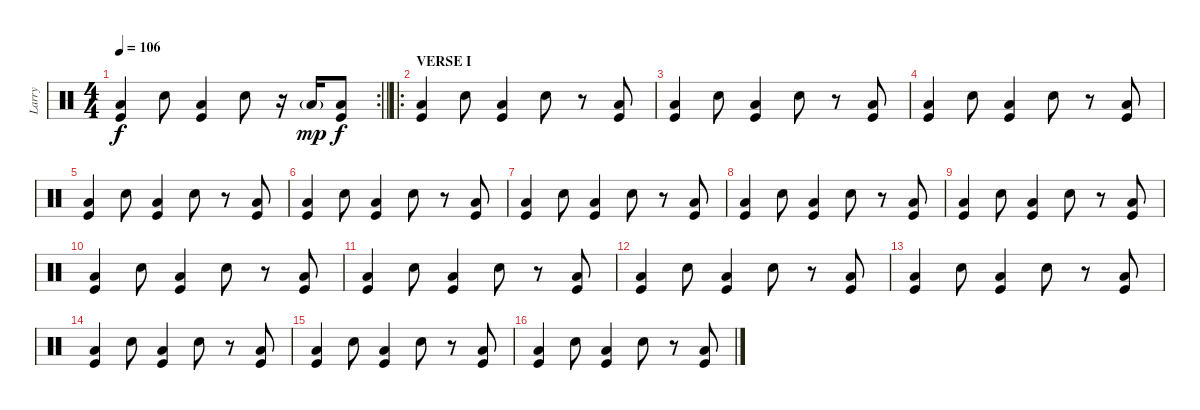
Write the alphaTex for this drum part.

\track ("Larry" "Larry") {instrument percussion}
\staff {score}
\articulation defaults
\rc 2
\ts (4 4)
\tempo 106
\clef neutral
\barLineRight lightlight
\ks c
("Low Tom (hit)" "Kick (hit)").4{dy f} "Snare (hit) 2".8 ("Low Tom (hit)" "Kick (hit)").4 "Snare (hit) 2".8 r.16 "Low Tom (hit)"{g}.16{dy mp} ("Low Tom (hit)" "Kick (hit)").8{dy f} |
\ro
\section ("" "VERSE I")
("Low Tom (hit)" "Kick (hit)").4 "Snare (hit) 2".8 ("Low Tom (hit)" "Kick (hit)").4 "Snare (hit) 2".8 r.8 ("Low Tom (hit)" "Kick (hit)").8 |
("Low Tom (hit)" "Kick (hit)").4 "Snare (hit) 2".8 ("Low Tom (hit)" "Kick (hit)").4 "Snare (hit) 2".8 r.8 ("Low Tom (hit)" "Kick (hit)").8 |
("Low Tom (hit)" "Kick (hit)").4 "Snare (hit) 2".8 ("Low Tom (hit)" "Kick (hit)").4 "Snare (hit) 2".8 r.8 ("Low Tom (hit)" "Kick (hit)").8 |
("Low Tom (hit)" "Kick (hit)").4 "Snare (hit) 2".8 ("Low Tom (hit)" "Kick (hit)").4 "Snare (hit) 2".8 r.8 ("Low Tom (hit)" "Kick (hit)").8 |
("Low Tom (hit)" "Kick (hit)").4 "Snare (hit) 2".8 ("Low Tom (hit)" "Kick (hit)").4 "Snare (hit) 2".8 r.8 ("Low Tom (hit)" "Kick (hit)").8 |
("Low Tom (hit)" "Kick (hit)").4 "Snare (hit) 2".8 ("Low Tom (hit)" "Kick (hit)").4 "Snare (hit) 2".8 r.8 ("Low Tom (hit)" "Kick (hit)").8 |
("Low Tom (hit)" "Kick (hit)").4 "Snare (hit) 2".8 ("Low Tom (hit)" "Kick (hit)").4 "Snare (hit) 2".8 r.8 ("Low Tom (hit)" "Kick (hit)").8 |
("Low Tom (hit)" "Kick (hit)").4 "Snare (hit) 2".8 ("Low Tom (hit)" "Kick (hit)").4 "Snare (hit) 2".8 r.8 ("Low Tom (hit)" "Kick (hit)").8 |
("Low Tom (hit)" "Kick (hit)").4 "Snare (hit) 2".8 ("Low Tom (hit)" "Kick (hit)").4 "Snare (hit) 2".8 r.8 ("Low Tom (hit)" "Kick (hit)").8 |
("Low Tom (hit)" "Kick (hit)").4 "Snare (hit) 2".8 ("Low Tom (hit)" "Kick (hit)").4 "Snare (hit) 2".8 r.8 ("Low Tom (hit)" "Kick (hit)").8 |
("Low Tom (hit)" "Kick (hit)").4 "Snare (hit) 2".8 ("Low Tom (hit)" "Kick (hit)").4 "Snare (hit) 2".8 r.8 ("Low Tom (hit)" "Kick (hit)").8 |
("Low Tom (hit)" "Kick (hit)").4 "Snare (hit) 2".8 ("Low Tom (hit)" "Kick (hit)").4 "Snare (hit) 2".8 r.8 ("Low Tom (hit)" "Kick (hit)").8 |
("Low Tom (hit)" "Kick (hit)").4 "Snare (hit) 2".8 ("Low Tom (hit)" "Kick (hit)").4 "Snare (hit) 2".8 r.8 ("Low Tom (hit)" "Kick (hit)").8 |
("Low Tom (hit)" "Kick (hit)").4 "Snare (hit) 2".8 ("Low Tom (hit)" "Kick (hit)").4 "Snare (hit) 2".8 r.8 ("Low Tom (hit)" "Kick (hit)").8 |
("Low Tom (hit)" "Kick (hit)").4 "Snare (hit) 2".8 ("Low Tom (hit)" "Kick (hit)").4 "Snare (hit) 2".8 r.8 ("Low Tom (hit)" "Kick (hit)").8
